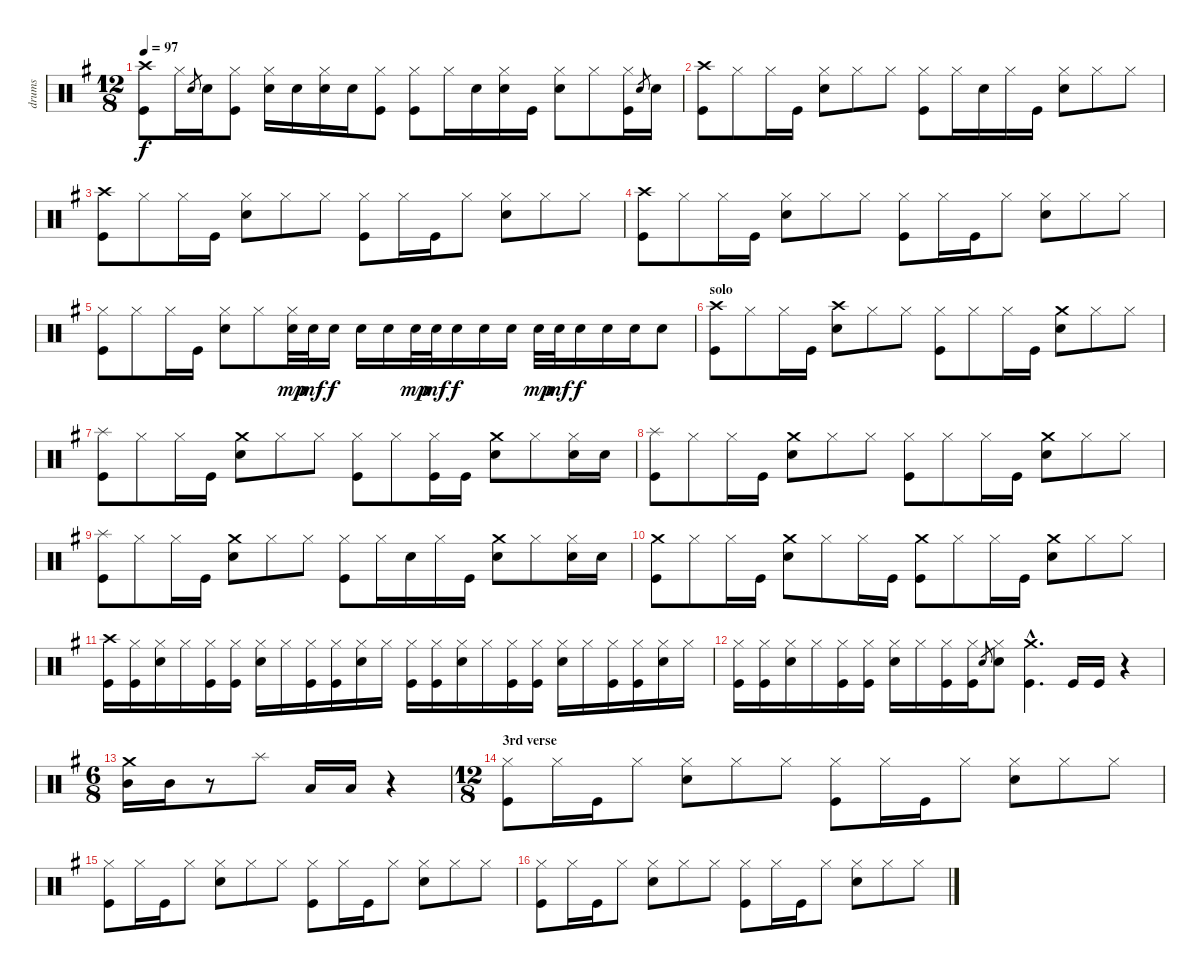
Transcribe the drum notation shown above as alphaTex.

\track ("drums" "drums") {instrument percussion}
\staff {score}
\articulation defaults
\ts (12 8)
\tempo 97
\clef neutral
\ks g
("Crash high (hit)" "Kick (hit)").8{dy f} "Hi-Hat (closed)".16 "Electric Snare (hit)".8{gr} "Electric Snare (hit)".16 ("Hi-Hat (closed)" "Kick (hit)").8 ("Hi-Hat (closed)" "Electric Snare (hit)").16 "Electric Snare (hit)".16 ("Hi-Hat (closed)" "Electric Snare (hit)").16 "Electric Snare (hit)".16 ("Hi-Hat (closed)" "Kick (hit)").8 ("Hi-Hat (closed)" "Kick (hit)").8 "Hi-Hat (closed)".16 "Electric Snare (hit)".16 ("Hi-Hat (closed)" "Electric Snare (hit)").16 "Kick (hit)".16 ("Hi-Hat (closed)" "Electric Snare (hit)").8 "Hi-Hat (closed)".8 ("Hi-Hat (closed)" "Kick (hit)").16 "Electric Snare (hit)".8{gr} "Electric Snare (hit)".16 |
("Crash high (hit)" "Kick (hit)").8 "Hi-Hat (closed)".8 "Hi-Hat (closed)".16 "Kick (hit)".16 ("Hi-Hat (closed)" "Electric Snare (hit)").8 "Hi-Hat (closed)".8 "Hi-Hat (closed)".8 ("Hi-Hat (closed)" "Kick (hit)").8 "Hi-Hat (closed)".16 "Electric Snare (hit)".16 "Hi-Hat (closed)".16 "Kick (hit)".16 ("Hi-Hat (closed)" "Electric Snare (hit)").8 "Hi-Hat (closed)".8 "Hi-Hat (closed)".8 |
("Crash high (hit)" "Kick (hit)").8 "Hi-Hat (closed)".8 "Hi-Hat (closed)".16 "Kick (hit)".16 ("Hi-Hat (closed)" "Electric Snare (hit)").8 "Hi-Hat (closed)".8 "Hi-Hat (closed)".8 ("Hi-Hat (closed)" "Kick (hit)").8 "Hi-Hat (closed)".16 "Kick (hit)".16 "Hi-Hat (closed)".8 ("Hi-Hat (closed)" "Electric Snare (hit)").8 "Hi-Hat (closed)".8 "Hi-Hat (closed)".8 |
("Crash high (hit)" "Kick (hit)").8 "Hi-Hat (closed)".8 "Hi-Hat (closed)".16 "Kick (hit)".16 ("Hi-Hat (closed)" "Electric Snare (hit)").8 "Hi-Hat (closed)".8 "Hi-Hat (closed)".8 ("Hi-Hat (closed)" "Kick (hit)").8 "Hi-Hat (closed)".16 "Kick (hit)".16 "Hi-Hat (closed)".8 ("Hi-Hat (closed)" "Electric Snare (hit)").8 "Hi-Hat (closed)".8 "Hi-Hat (closed)".8 |
("Hi-Hat (closed)" "Kick (hit)").8 "Hi-Hat (closed)".8 "Hi-Hat (closed)".16 "Kick (hit)".16 ("Hi-Hat (closed)" "Electric Snare (hit)").8 "Hi-Hat (closed)".8 ("Hi-Hat (closed)" "Electric Snare (hit)").32{dy mp} "Electric Snare (hit)".32{dy mf} "Electric Snare (hit)".16{dy f} "Electric Snare (hit)".16 "Electric Snare (hit)".16 "Electric Snare (hit)".32{dy mp} "Electric Snare (hit)".32{dy mf} "Electric Snare (hit)".16{dy f} "Electric Snare (hit)".16 "Electric Snare (hit)".16 "Electric Snare (hit)".32{dy mp} "Electric Snare (hit)".32{dy mf} "Electric Snare (hit)".16{dy f} "Electric Snare (hit)".16 "Electric Snare (hit)".16 "Electric Snare (hit)".8 |
\section ("" "solo")
("Crash high (hit)" "Kick (hit)").8 "Hi-Hat (closed)".8 "Hi-Hat (closed)".16 "Kick (hit)".16 ("Crash high (hit)" "Electric Snare (hit)").8 "Hi-Hat (closed)".8 "Hi-Hat (closed)".8 ("Hi-Hat (closed)" "Kick (hit)").8 "Hi-Hat (closed)".8 "Hi-Hat (closed)".16 "Kick (hit)".16 ("Crash medium (hit)" "Electric Snare (hit)").8 "Hi-Hat (closed)".8 "Hi-Hat (closed)".8 |
("Splash (hit)" "Kick (hit)").8 "Hi-Hat (closed)".8 "Hi-Hat (closed)".16 "Kick (hit)".16 ("Crash medium (hit)" "Electric Snare (hit)").8 "Hi-Hat (closed)".8 "Hi-Hat (closed)".8 ("Hi-Hat (closed)" "Kick (hit)").8 "Hi-Hat (closed)".8 ("Hi-Hat (closed)" "Kick (hit)").16 "Kick (hit)".16 ("Crash medium (hit)" "Electric Snare (hit)").8 "Hi-Hat (closed)".8 ("Hi-Hat (closed)" "Electric Snare (hit)").16 "Electric Snare (hit)".16 |
("Splash (hit)" "Kick (hit)").8 "Hi-Hat (closed)".8 "Hi-Hat (closed)".16 "Kick (hit)".16 ("Crash medium (hit)" "Electric Snare (hit)").8 "Hi-Hat (closed)".8 "Hi-Hat (closed)".8 ("Hi-Hat (closed)" "Kick (hit)").8 "Hi-Hat (closed)".8 "Hi-Hat (closed)".16 "Kick (hit)".16 ("Crash medium (hit)" "Electric Snare (hit)").8 "Hi-Hat (closed)".8 "Hi-Hat (closed)".8 |
("Splash (hit)" "Kick (hit)").8 "Hi-Hat (closed)".8 "Hi-Hat (closed)".16 "Kick (hit)".16 ("Crash medium (hit)" "Electric Snare (hit)").8 "Hi-Hat (closed)".8 "Hi-Hat (closed)".8 ("Hi-Hat (closed)" "Kick (hit)").8 "Hi-Hat (closed)".16 "Electric Snare (hit)".16 "Hi-Hat (closed)".16 "Kick (hit)".16 ("Crash medium (hit)" "Electric Snare (hit)").8 "Hi-Hat (closed)".8 ("Hi-Hat (closed)" "Electric Snare (hit)").16 "Electric Snare (hit)".16 |
("Crash medium (hit)" "Kick (hit)").8 "Hi-Hat (closed)".8 "Hi-Hat (closed)".16 "Kick (hit)".16 ("Crash medium (hit)" "Electric Snare (hit)").8 "Hi-Hat (closed)".8 "Hi-Hat (closed)".16 "Kick (hit)".16 ("Crash medium (hit)" "Kick (hit)").8 "Hi-Hat (closed)".8 "Hi-Hat (closed)".16 "Kick (hit)".16 ("Crash medium (hit)" "Electric Snare (hit)").8 "Hi-Hat (closed)".8 "Hi-Hat (closed)".8 |
("Crash high (hit)" "Kick (hit)").16 ("Hi-Hat (closed)" "Kick (hit)").16 ("Hi-Hat (closed)" "Electric Snare (hit)").16 "Hi-Hat (closed)".16 ("Hi-Hat (closed)" "Kick (hit)").16 ("Hi-Hat (closed)" "Kick (hit)").16 ("Hi-Hat (closed)" "Electric Snare (hit)").16 "Hi-Hat (closed)".16 ("Hi-Hat (closed)" "Kick (hit)").16 ("Hi-Hat (closed)" "Kick (hit)").16 ("Hi-Hat (closed)" "Electric Snare (hit)").16 "Hi-Hat (closed)".16 ("Hi-Hat (closed)" "Kick (hit)").16 ("Hi-Hat (closed)" "Kick (hit)").16 ("Hi-Hat (closed)" "Electric Snare (hit)").16 "Hi-Hat (closed)".16 ("Hi-Hat (closed)" "Kick (hit)").16 ("Hi-Hat (closed)" "Kick (hit)").16 ("Hi-Hat (closed)" "Electric Snare (hit)").16 "Hi-Hat (closed)".16 ("Hi-Hat (closed)" "Kick (hit)").16 ("Hi-Hat (closed)" "Kick (hit)").16 ("Hi-Hat (closed)" "Electric Snare (hit)").16 "Hi-Hat (closed)".16 |
("Hi-Hat (closed)" "Kick (hit)").16 ("Hi-Hat (closed)" "Kick (hit)").16 ("Hi-Hat (closed)" "Electric Snare (hit)").16 "Hi-Hat (closed)".16 ("Hi-Hat (closed)" "Kick (hit)").16 ("Hi-Hat (closed)" "Kick (hit)").16 ("Hi-Hat (closed)" "Electric Snare (hit)").16 "Hi-Hat (closed)".16 ("Hi-Hat (closed)" "Kick (hit)").16 ("Hi-Hat (closed)" "Kick (hit)").16 "Electric Snare (hit)".8{gr} ("Hi-Hat (closed)" "Electric Snare (hit)").8 ("Crash medium (hit)" "Kick (hit)"{hac}).4{d} "Kick (hit)".16 "Kick (hit)".16 r.4 |
\ts (6 8)
("Crash medium (hit)" "Mid Tom (hit)").16 "Mid Tom (hit)".16 r.8 "Splash (hit)".8 "Low Tom (hit)".16 "Low Tom (hit)".16 r.4 |
\ts (12 8)
\section ("" "3rd verse")
("Hi-Hat (closed)" "Kick (hit)").8 "Hi-Hat (closed)".16 "Kick (hit)".16 "Hi-Hat (closed)".8 ("Hi-Hat (closed)" "Electric Snare (hit)").8 "Hi-Hat (closed)".8 "Hi-Hat (closed)".8 ("Hi-Hat (closed)" "Kick (hit)").8 "Hi-Hat (closed)".16 "Kick (hit)".16 "Hi-Hat (closed)".8 ("Hi-Hat (closed)" "Electric Snare (hit)").8 "Hi-Hat (closed)".8 "Hi-Hat (closed)".8 |
("Hi-Hat (closed)" "Kick (hit)").8 "Hi-Hat (closed)".16 "Kick (hit)".16 "Hi-Hat (closed)".8 ("Hi-Hat (closed)" "Electric Snare (hit)").8 "Hi-Hat (closed)".8 "Hi-Hat (closed)".8 ("Hi-Hat (closed)" "Kick (hit)").8 "Hi-Hat (closed)".16 "Kick (hit)".16 "Hi-Hat (closed)".8 ("Hi-Hat (closed)" "Electric Snare (hit)").8 "Hi-Hat (closed)".8 "Hi-Hat (closed)".8 |
("Hi-Hat (closed)" "Kick (hit)").8 "Hi-Hat (closed)".16 "Kick (hit)".16 "Hi-Hat (closed)".8 ("Hi-Hat (closed)" "Electric Snare (hit)").8 "Hi-Hat (closed)".8 "Hi-Hat (closed)".8 ("Hi-Hat (closed)" "Kick (hit)").8 "Hi-Hat (closed)".16 "Kick (hit)".16 "Hi-Hat (closed)".8 ("Hi-Hat (closed)" "Electric Snare (hit)").8 "Hi-Hat (closed)".8 "Hi-Hat (closed)".8
